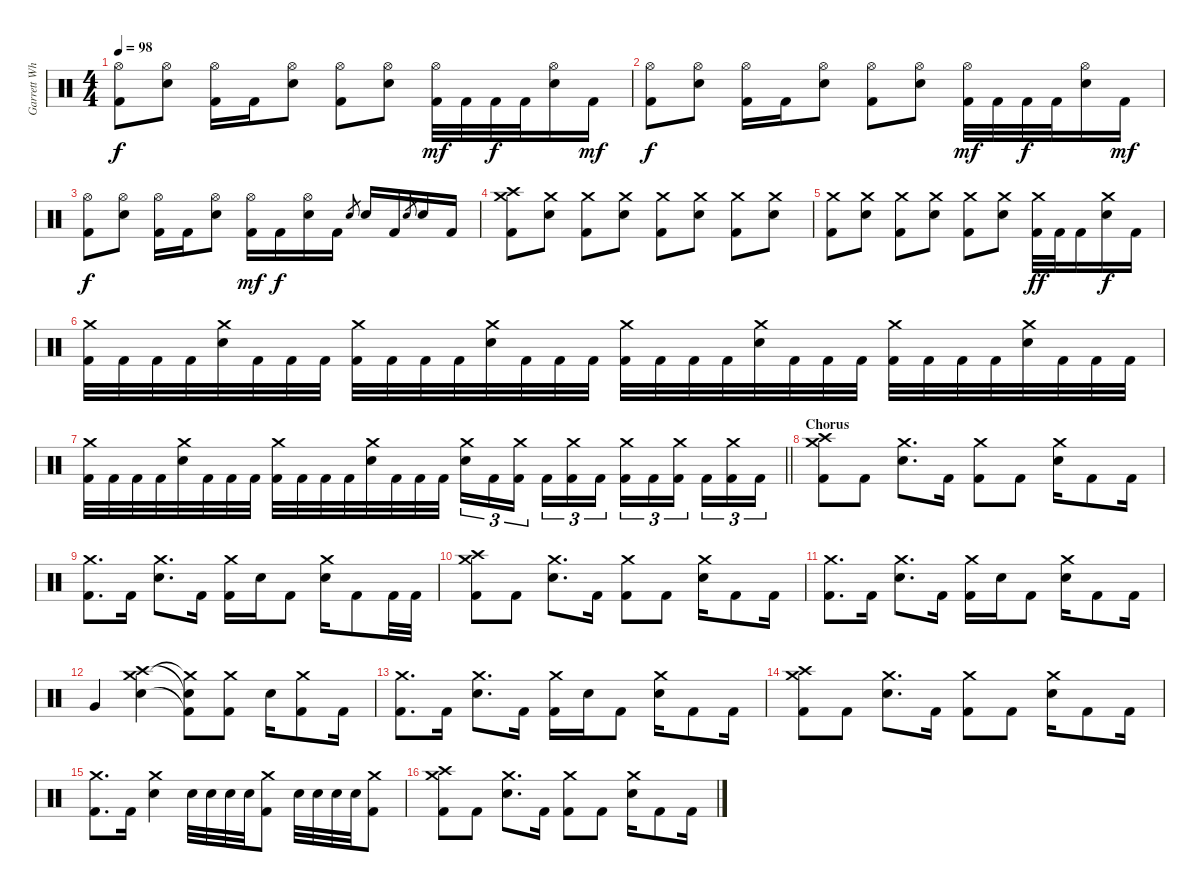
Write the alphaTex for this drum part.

\track ("Garrett Whitlock" "Garrett Wh") {instrument percussion}
\staff {score}
\articulation defaults
\ts (4 4)
\tempo 98
\clef neutral
\ks c
("Hi-Hat (open)" "Kick (hit) 2").8{dy f} ("Hi-Hat (open)" "Electric Snare (hit)").8 ("Hi-Hat (open)" "Kick (hit) 2").16 "Kick (hit) 2".16 ("Hi-Hat (open)" "Electric Snare (hit)").8 ("Hi-Hat (open)" "Kick (hit) 2").8 ("Hi-Hat (open)" "Electric Snare (hit)").8 ("Hi-Hat (open)" "Kick (hit) 2").32{dy mf} "Kick (hit) 2".32 "Kick (hit) 2".32{dy f} "Kick (hit) 2".32 ("Hi-Hat (open)" "Electric Snare (hit)").16 "Kick (hit) 2".16{dy mf} |
("Hi-Hat (open)" "Kick (hit) 2").8{dy f} ("Hi-Hat (open)" "Electric Snare (hit)").8 ("Hi-Hat (open)" "Kick (hit) 2").16 "Kick (hit) 2".16 ("Hi-Hat (open)" "Electric Snare (hit)").8 ("Hi-Hat (open)" "Kick (hit) 2").8 ("Hi-Hat (open)" "Electric Snare (hit)").8 ("Hi-Hat (open)" "Kick (hit) 2").32{dy mf} "Kick (hit) 2".32 "Kick (hit) 2".32{dy f} "Kick (hit) 2".32 ("Hi-Hat (open)" "Electric Snare (hit)").16 "Kick (hit) 2".16{dy mf} |
("Hi-Hat (open)" "Kick (hit) 2").8{dy f} ("Hi-Hat (open)" "Electric Snare (hit)").8 ("Hi-Hat (open)" "Kick (hit) 2").16 "Kick (hit) 2".16 ("Hi-Hat (open)" "Electric Snare (hit)").8 ("Hi-Hat (open)" "Kick (hit) 2").16{dy mf} "Kick (hit) 2".16{dy f} ("Hi-Hat (open)" "Electric Snare (hit)").16 "Kick (hit) 2".16 "Electric Snare (hit)".8{gr} "Electric Snare (hit)".16 "Kick (hit) 2".16 "Electric Snare (hit)".8{gr} "Electric Snare (hit)".16 "Kick (hit) 2".16 |
("Crash high (hit)" "Crash medium (hit)" "Kick (hit) 2").8 ("Crash medium (hit)" "Electric Snare (hit)").8 ("Crash medium (hit)" "Kick (hit) 2").8 ("Crash medium (hit)" "Electric Snare (hit)").8 ("Crash medium (hit)" "Kick (hit) 2").8 ("Crash medium (hit)" "Electric Snare (hit)").8 ("Crash medium (hit)" "Kick (hit) 2").8 ("Crash medium (hit)" "Electric Snare (hit)").8 |
("Crash medium (hit)" "Kick (hit) 2").8 ("Crash medium (hit)" "Electric Snare (hit)").8 ("Crash medium (hit)" "Kick (hit) 2").8 ("Crash medium (hit)" "Electric Snare (hit)").8 ("Crash medium (hit)" "Kick (hit) 2").8 ("Crash medium (hit)" "Electric Snare (hit)").8 ("Crash medium (hit)" "Kick (hit) 2").32{dy ff} "Kick (hit) 2".32 "Kick (hit) 2".16 ("Crash medium (hit)" "Electric Snare (hit)").16{dy f} "Kick (hit) 2".16 |
("Crash medium (hit)" "Kick (hit) 2").32 "Kick (hit) 2".32 "Kick (hit) 2".32 "Kick (hit) 2".32 ("Crash medium (hit)" "Electric Snare (hit)").32 "Kick (hit) 2".32 "Kick (hit) 2".32 "Kick (hit) 2".32 ("Crash medium (hit)" "Kick (hit) 2").32 "Kick (hit) 2".32 "Kick (hit) 2".32 "Kick (hit) 2".32 ("Crash medium (hit)" "Electric Snare (hit)").32 "Kick (hit) 2".32 "Kick (hit) 2".32 "Kick (hit) 2".32 ("Crash medium (hit)" "Kick (hit) 2").32 "Kick (hit) 2".32 "Kick (hit) 2".32 "Kick (hit) 2".32 ("Crash medium (hit)" "Electric Snare (hit)").32 "Kick (hit) 2".32 "Kick (hit) 2".32 "Kick (hit) 2".32 ("Crash medium (hit)" "Kick (hit) 2").32 "Kick (hit) 2".32 "Kick (hit) 2".32 "Kick (hit) 2".32 ("Crash medium (hit)" "Electric Snare (hit)").32 "Kick (hit) 2".32 "Kick (hit) 2".32 "Kick (hit) 2".32 |
\barLineRight lightlight
("Crash medium (hit)" "Kick (hit) 2").32 "Kick (hit) 2".32 "Kick (hit) 2".32 "Kick (hit) 2".32 ("Crash medium (hit)" "Electric Snare (hit)").32 "Kick (hit) 2".32 "Kick (hit) 2".32 "Kick (hit) 2".32 ("Crash medium (hit)" "Kick (hit) 2").32 "Kick (hit) 2".32 "Kick (hit) 2".32 "Kick (hit) 2".32 ("Crash medium (hit)" "Electric Snare (hit)").32 "Kick (hit) 2".32 "Kick (hit) 2".32 "Kick (hit) 2".32 ("Crash medium (hit)" "Electric Snare (hit)").16{tu (3 2)} "Kick (hit) 2".16{tu (3 2)} ("Crash medium (hit)" "Kick (hit) 2").16{tu (3 2) beam splitsecondary} "Kick (hit) 2".16{tu (3 2)} ("Crash medium (hit)" "Kick (hit) 2").16{tu (3 2)} "Kick (hit) 2".16{tu (3 2)} ("Crash medium (hit)" "Kick (hit) 2").16{tu (3 2)} "Kick (hit) 2".16{tu (3 2)} ("Crash medium (hit)" "Kick (hit) 2").16{tu (3 2) beam splitsecondary} "Kick (hit) 2".16{tu (3 2)} ("Crash medium (hit)" "Kick (hit) 2").16{tu (3 2)} "Kick (hit) 2".16{tu (3 2)} |
\section ("" "Chorus")
("Crash high (hit)" "Crash medium (hit)" "Kick (hit) 2").8 "Kick (hit) 2".8 ("Crash medium (hit)" "Electric Snare (hit)").8{d} "Kick (hit) 2".16 ("Crash medium (hit)" "Kick (hit) 2").8 "Kick (hit) 2".8 ("Crash medium (hit)" "Electric Snare (hit)").16 "Kick (hit) 2".8 "Kick (hit) 2".16 |
("Crash medium (hit)" "Kick (hit) 2").8{d} "Kick (hit) 2".16 ("Crash medium (hit)" "Electric Snare (hit)").8{d} "Kick (hit) 2".16 ("Crash medium (hit)" "Kick (hit) 2").16 "Electric Snare (hit)".16 "Kick (hit) 2".8 ("Crash medium (hit)" "Electric Snare (hit)").16 "Kick (hit) 2".8 "Kick (hit) 2".32 "Kick (hit) 2".32 |
("Crash high (hit)" "Crash medium (hit)" "Kick (hit) 2").8 "Kick (hit) 2".8 ("Crash medium (hit)" "Electric Snare (hit)").8{d} "Kick (hit) 2".16 ("Crash medium (hit)" "Kick (hit) 2").8 "Kick (hit) 2".8 ("Crash medium (hit)" "Electric Snare (hit)").16 "Kick (hit) 2".8 "Kick (hit) 2".16 |
("Crash medium (hit)" "Kick (hit) 2").8{d} "Kick (hit) 2".16 ("Crash medium (hit)" "Electric Snare (hit)").8{d} "Kick (hit) 2".16 ("Crash medium (hit)" "Kick (hit) 2").16 "Electric Snare (hit)".16 "Kick (hit) 2".8 ("Crash medium (hit)" "Electric Snare (hit)").16 "Kick (hit) 2".8 "Kick (hit) 2".16 |
"Very Low Tom (hit)".4 ("Crash high (hit)" "Crash medium (hit)" "Electric Snare (hit)").4 ("Snare (hit)"{t} "Crash medium (hit)"{t} "Kick (hit) 2"{t}).8 ("Crash medium (hit)" "Kick (hit) 2").8 "Electric Snare (hit)".16 ("Crash medium (hit)" "Kick (hit) 2").8 "Kick (hit) 2".16 |
("Crash medium (hit)" "Kick (hit) 2").8{d} "Kick (hit) 2".16 ("Crash medium (hit)" "Electric Snare (hit)").8{d} "Kick (hit) 2".16 ("Crash medium (hit)" "Kick (hit) 2").16 "Electric Snare (hit)".16 "Kick (hit) 2".8 ("Crash medium (hit)" "Electric Snare (hit)").16 "Kick (hit) 2".8 "Kick (hit) 2".16 |
("Crash high (hit)" "Crash medium (hit)" "Kick (hit) 2").8 "Kick (hit) 2".8 ("Crash medium (hit)" "Electric Snare (hit)").8{d} "Kick (hit) 2".16 ("Crash medium (hit)" "Kick (hit) 2").8 "Kick (hit) 2".8 ("Crash medium (hit)" "Electric Snare (hit)").16 "Kick (hit) 2".8 "Kick (hit) 2".16 |
("Crash medium (hit)" "Kick (hit) 2").8{d} "Kick (hit) 2".16 ("Crash medium (hit)" "Electric Snare (hit)").4 "Electric Snare (hit)".32 "Electric Snare (hit)".32 "Electric Snare (hit)".32 "Electric Snare (hit)".32 ("Crash medium (hit)" "Kick (hit) 2").8 "Electric Snare (hit)".32 "Electric Snare (hit)".32 "Electric Snare (hit)".32 "Electric Snare (hit)".32 ("Crash medium (hit)" "Kick (hit) 2").8 |
("Crash high (hit)" "Crash medium (hit)" "Kick (hit) 2").8 "Kick (hit) 2".8 ("Crash medium (hit)" "Electric Snare (hit)").8{d} "Kick (hit) 2".16 ("Crash medium (hit)" "Kick (hit) 2").8 "Kick (hit) 2".8 ("Crash medium (hit)" "Electric Snare (hit)").16 "Kick (hit) 2".8 "Kick (hit) 2".16
